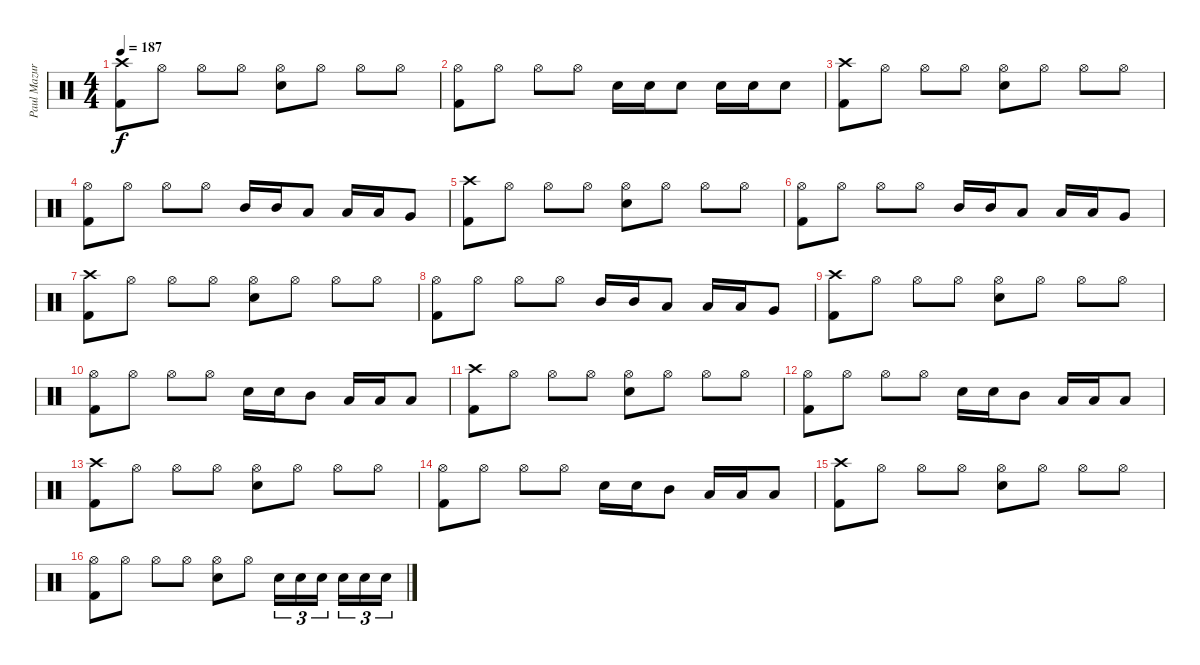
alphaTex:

\track ("Paul Mazurkiewicz - Drums" "Paul Mazur") {instrument percussion}
\staff {score}
\articulation defaults
\ts (4 4)
\tempo 187
\clef neutral
\ks c
("Crash high (hit)" "Kick (hit) 2").8{dy f} "Hi-Hat (open)".8 "Hi-Hat (open)".8 "Hi-Hat (open)".8 ("Hi-Hat (open)" "Snare (hit) 2").8 "Hi-Hat (open)".8 "Hi-Hat (open)".8 "Hi-Hat (open)".8 |
("Hi-Hat (open)" "Kick (hit) 2").8 "Hi-Hat (open)".8 "Hi-Hat (open)".8 "Hi-Hat (open)".8 "Snare (hit) 2".16 "Snare (hit) 2".16 "Snare (hit) 2".8 "Snare (hit) 2".16 "Snare (hit) 2".16 "Snare (hit) 2".8 |
("Crash high (hit)" "Kick (hit) 2").8 "Hi-Hat (open)".8 "Hi-Hat (open)".8 "Hi-Hat (open)".8 ("Hi-Hat (open)" "Snare (hit) 2").8 "Hi-Hat (open)".8 "Hi-Hat (open)".8 "Hi-Hat (open)".8 |
("Hi-Hat (open)" "Kick (hit) 2").8 "Hi-Hat (open)".8 "Hi-Hat (open)".8 "Hi-Hat (open)".8 "Mid Tom (hit)".16 "Mid Tom (hit)".16 "Low Tom (hit)".8 "Low Tom (hit)".16 "Low Tom (hit)".16 "Very Low Tom (hit)".8 |
("Crash high (hit)" "Kick (hit) 2").8 "Hi-Hat (open)".8 "Hi-Hat (open)".8 "Hi-Hat (open)".8 ("Hi-Hat (open)" "Snare (hit) 2").8 "Hi-Hat (open)".8 "Hi-Hat (open)".8 "Hi-Hat (open)".8 |
("Hi-Hat (open)" "Kick (hit) 2").8 "Hi-Hat (open)".8 "Hi-Hat (open)".8 "Hi-Hat (open)".8 "Mid Tom (hit)".16 "Mid Tom (hit)".16 "Low Tom (hit)".8 "Low Tom (hit)".16 "Low Tom (hit)".16 "Very Low Tom (hit)".8 |
("Crash high (hit)" "Kick (hit) 2").8 "Hi-Hat (open)".8 "Hi-Hat (open)".8 "Hi-Hat (open)".8 ("Hi-Hat (open)" "Snare (hit) 2").8 "Hi-Hat (open)".8 "Hi-Hat (open)".8 "Hi-Hat (open)".8 |
("Hi-Hat (open)" "Kick (hit) 2").8 "Hi-Hat (open)".8 "Hi-Hat (open)".8 "Hi-Hat (open)".8 "Mid Tom (hit)".16 "Mid Tom (hit)".16 "Low Tom (hit)".8 "Low Tom (hit)".16 "Low Tom (hit)".16 "Very Low Tom (hit)".8 |
("Crash high (hit)" "Kick (hit) 2").8 "Hi-Hat (open)".8 "Hi-Hat (open)".8 "Hi-Hat (open)".8 ("Hi-Hat (open)" "Snare (hit) 2").8 "Hi-Hat (open)".8 "Hi-Hat (open)".8 "Hi-Hat (open)".8 |
("Hi-Hat (open)" "Kick (hit) 2").8 "Hi-Hat (open)".8 "Hi-Hat (open)".8 "Hi-Hat (open)".8 "Snare (hit) 2".16 "Snare (hit) 2".16 "Mid Tom (hit)".8 "Low Tom (hit)".16 "Low Tom (hit)".16 "Low Floor Tom (hit)".8 |
("Crash high (hit)" "Kick (hit) 2").8 "Hi-Hat (open)".8 "Hi-Hat (open)".8 "Hi-Hat (open)".8 ("Hi-Hat (open)" "Snare (hit) 2").8 "Hi-Hat (open)".8 "Hi-Hat (open)".8 "Hi-Hat (open)".8 |
("Hi-Hat (open)" "Kick (hit) 2").8 "Hi-Hat (open)".8 "Hi-Hat (open)".8 "Hi-Hat (open)".8 "Snare (hit) 2".16 "Snare (hit) 2".16 "Mid Tom (hit)".8 "Low Tom (hit)".16 "Low Tom (hit)".16 "Low Floor Tom (hit)".8 |
("Crash high (hit)" "Kick (hit) 2").8 "Hi-Hat (open)".8 "Hi-Hat (open)".8 "Hi-Hat (open)".8 ("Hi-Hat (open)" "Snare (hit) 2").8 "Hi-Hat (open)".8 "Hi-Hat (open)".8 "Hi-Hat (open)".8 |
("Hi-Hat (open)" "Kick (hit) 2").8 "Hi-Hat (open)".8 "Hi-Hat (open)".8 "Hi-Hat (open)".8 "Snare (hit) 2".16 "Snare (hit) 2".16 "Mid Tom (hit)".8 "Low Tom (hit)".16 "Low Tom (hit)".16 "Low Floor Tom (hit)".8 |
("Crash high (hit)" "Kick (hit) 2").8 "Hi-Hat (open)".8 "Hi-Hat (open)".8 "Hi-Hat (open)".8 ("Hi-Hat (open)" "Snare (hit) 2").8 "Hi-Hat (open)".8 "Hi-Hat (open)".8 "Hi-Hat (open)".8 |
("Hi-Hat (open)" "Kick (hit) 2").8 "Hi-Hat (open)".8 "Hi-Hat (open)".8 "Hi-Hat (open)".8 ("Hi-Hat (open)" "Snare (hit) 2").8 "Hi-Hat (open)".8 "Snare (hit) 2".16{tu (3 2)} "Snare (hit) 2".16{tu (3 2)} "Snare (hit) 2".16{tu (3 2)} "Snare (hit) 2".16{tu (3 2)} "Snare (hit) 2".16{tu (3 2)} "Snare (hit) 2".16{tu (3 2)}
